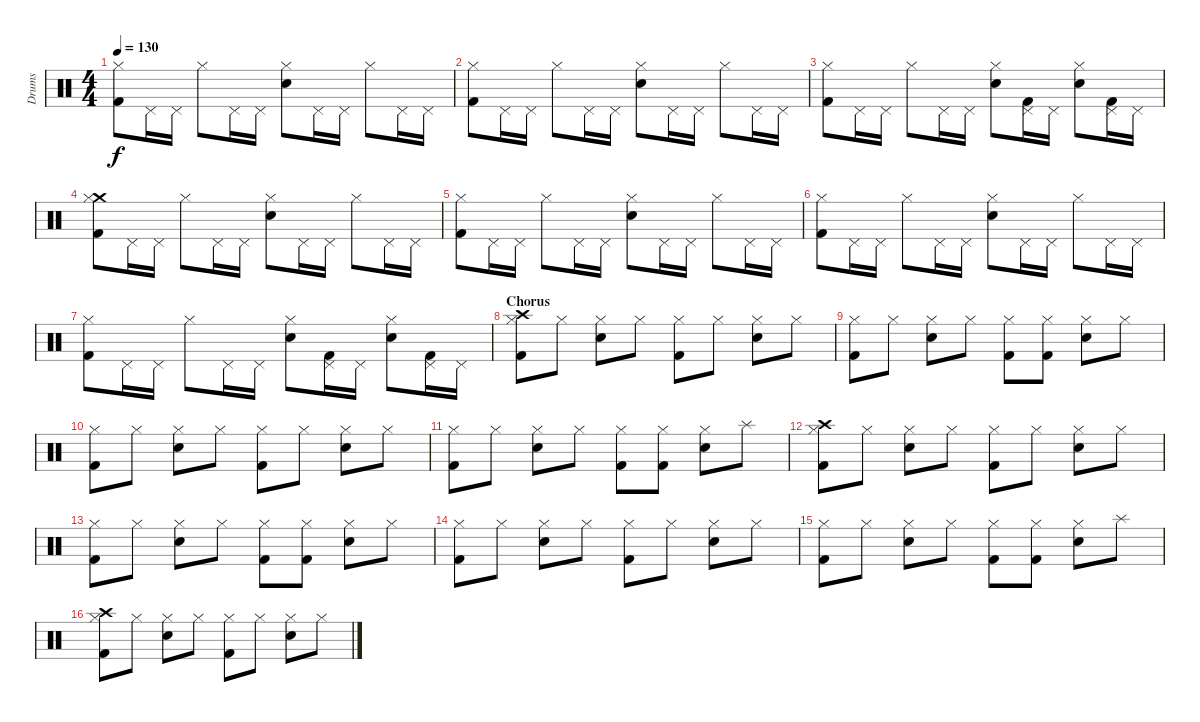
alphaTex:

\track ("Drums" "Drums") {instrument percussion}
\staff {score}
\articulation defaults
\ts (4 4)
\tempo 130
\clef neutral
\ks c
("Hi-Hat (closed)" "Kick (hit) 2").8{dy f} "Pedal Hi-Hat (hit)".16 "Pedal Hi-Hat (hit)".16 "Hi-Hat (closed)".8 "Pedal Hi-Hat (hit)".16 "Pedal Hi-Hat (hit)".16 ("Hi-Hat (closed)" "Electric Snare (hit)").8 "Pedal Hi-Hat (hit)".16 "Pedal Hi-Hat (hit)".16 "Hi-Hat (closed)".8 "Pedal Hi-Hat (hit)".16 "Pedal Hi-Hat (hit)".16 |
("Hi-Hat (closed)" "Kick (hit) 2").8 "Pedal Hi-Hat (hit)".16 "Pedal Hi-Hat (hit)".16 "Hi-Hat (closed)".8 "Pedal Hi-Hat (hit)".16 "Pedal Hi-Hat (hit)".16 ("Hi-Hat (closed)" "Electric Snare (hit)").8 "Pedal Hi-Hat (hit)".16 "Pedal Hi-Hat (hit)".16 "Hi-Hat (closed)".8 "Pedal Hi-Hat (hit)".16 "Pedal Hi-Hat (hit)".16 |
("Hi-Hat (closed)" "Kick (hit) 2").8 "Pedal Hi-Hat (hit)".16 "Pedal Hi-Hat (hit)".16 "Hi-Hat (closed)".8 "Pedal Hi-Hat (hit)".16 "Pedal Hi-Hat (hit)".16 ("Hi-Hat (closed)" "Electric Snare (hit)").8 ("Pedal Hi-Hat (hit)" "Kick (hit) 2").16 "Pedal Hi-Hat (hit)".16 ("Hi-Hat (closed)" "Electric Snare (hit)").8 ("Pedal Hi-Hat (hit)" "Kick (hit) 2").16 "Pedal Hi-Hat (hit)".16 |
("Crash medium (hit)" "Hi-Hat (closed)" "Kick (hit) 2").8 "Pedal Hi-Hat (hit)".16 "Pedal Hi-Hat (hit)".16 "Hi-Hat (closed)".8 "Pedal Hi-Hat (hit)".16 "Pedal Hi-Hat (hit)".16 ("Hi-Hat (closed)" "Electric Snare (hit)").8 "Pedal Hi-Hat (hit)".16 "Pedal Hi-Hat (hit)".16 "Hi-Hat (closed)".8 "Pedal Hi-Hat (hit)".16 "Pedal Hi-Hat (hit)".16 |
("Hi-Hat (closed)" "Kick (hit) 2").8 "Pedal Hi-Hat (hit)".16 "Pedal Hi-Hat (hit)".16 "Hi-Hat (closed)".8 "Pedal Hi-Hat (hit)".16 "Pedal Hi-Hat (hit)".16 ("Hi-Hat (closed)" "Electric Snare (hit)").8 "Pedal Hi-Hat (hit)".16 "Pedal Hi-Hat (hit)".16 "Hi-Hat (closed)".8 "Pedal Hi-Hat (hit)".16 "Pedal Hi-Hat (hit)".16 |
("Hi-Hat (closed)" "Kick (hit) 2").8 "Pedal Hi-Hat (hit)".16 "Pedal Hi-Hat (hit)".16 "Hi-Hat (closed)".8 "Pedal Hi-Hat (hit)".16 "Pedal Hi-Hat (hit)".16 ("Hi-Hat (closed)" "Electric Snare (hit)").8 "Pedal Hi-Hat (hit)".16 "Pedal Hi-Hat (hit)".16 "Hi-Hat (closed)".8 "Pedal Hi-Hat (hit)".16 "Pedal Hi-Hat (hit)".16 |
("Hi-Hat (closed)" "Kick (hit) 2").8 "Pedal Hi-Hat (hit)".16 "Pedal Hi-Hat (hit)".16 "Hi-Hat (closed)".8 "Pedal Hi-Hat (hit)".16 "Pedal Hi-Hat (hit)".16 ("Hi-Hat (closed)" "Electric Snare (hit)").8 ("Pedal Hi-Hat (hit)" "Kick (hit) 2").16 "Pedal Hi-Hat (hit)".16 ("Hi-Hat (closed)" "Electric Snare (hit)").8 ("Pedal Hi-Hat (hit)" "Kick (hit) 2").16 "Pedal Hi-Hat (hit)".16 |
\section ("" "Chorus")
("Crash high (hit)" "Hi-Hat (closed)" "Kick (hit) 2").8 "Hi-Hat (closed)".8 ("Hi-Hat (closed)" "Electric Snare (hit)").8 "Hi-Hat (closed)".8 ("Hi-Hat (closed)" "Kick (hit) 2").8 "Hi-Hat (closed)".8 ("Hi-Hat (closed)" "Electric Snare (hit)").8 "Hi-Hat (closed)".8 |
("Hi-Hat (closed)" "Kick (hit) 2").8 "Hi-Hat (closed)".8 ("Hi-Hat (closed)" "Electric Snare (hit)").8 "Hi-Hat (closed)".8 ("Hi-Hat (closed)" "Kick (hit) 2").8 ("Hi-Hat (closed)" "Kick (hit) 2").8 ("Hi-Hat (closed)" "Electric Snare (hit)").8 "Hi-Hat (closed)".8 |
("Hi-Hat (closed)" "Kick (hit) 2").8 "Hi-Hat (closed)".8 ("Hi-Hat (closed)" "Electric Snare (hit)").8 "Hi-Hat (closed)".8 ("Hi-Hat (closed)" "Kick (hit) 2").8 "Hi-Hat (closed)".8 ("Hi-Hat (closed)" "Electric Snare (hit)").8 "Hi-Hat (closed)".8 |
("Hi-Hat (closed)" "Kick (hit) 2").8 "Hi-Hat (closed)".8 ("Hi-Hat (closed)" "Electric Snare (hit)").8 "Hi-Hat (closed)".8 ("Hi-Hat (closed)" "Kick (hit) 2").8 ("Hi-Hat (closed)" "Kick (hit) 2").8 ("Hi-Hat (closed)" "Electric Snare (hit)").8 "Splash (hit)".8 |
("Crash high (hit)" "Hi-Hat (closed)" "Kick (hit) 2").8 "Hi-Hat (closed)".8 ("Hi-Hat (closed)" "Electric Snare (hit)").8 "Hi-Hat (closed)".8 ("Hi-Hat (closed)" "Kick (hit) 2").8 "Hi-Hat (closed)".8 ("Hi-Hat (closed)" "Electric Snare (hit)").8 "Hi-Hat (closed)".8 |
("Hi-Hat (closed)" "Kick (hit) 2").8 "Hi-Hat (closed)".8 ("Hi-Hat (closed)" "Electric Snare (hit)").8 "Hi-Hat (closed)".8 ("Hi-Hat (closed)" "Kick (hit) 2").8 ("Hi-Hat (closed)" "Kick (hit) 2").8 ("Hi-Hat (closed)" "Electric Snare (hit)").8 "Hi-Hat (closed)".8 |
("Hi-Hat (closed)" "Kick (hit) 2").8 "Hi-Hat (closed)".8 ("Hi-Hat (closed)" "Electric Snare (hit)").8 "Hi-Hat (closed)".8 ("Hi-Hat (closed)" "Kick (hit) 2").8 "Hi-Hat (closed)".8 ("Hi-Hat (closed)" "Electric Snare (hit)").8 "Hi-Hat (closed)".8 |
("Hi-Hat (closed)" "Kick (hit) 2").8 "Hi-Hat (closed)".8 ("Hi-Hat (closed)" "Electric Snare (hit)").8 "Hi-Hat (closed)".8 ("Hi-Hat (closed)" "Kick (hit) 2").8 ("Hi-Hat (closed)" "Kick (hit) 2").8 ("Hi-Hat (closed)" "Electric Snare (hit)").8 "Splash (hit)".8 |
("Crash high (hit)" "Hi-Hat (closed)" "Kick (hit) 2").8 "Hi-Hat (closed)".8 ("Hi-Hat (closed)" "Electric Snare (hit)").8 "Hi-Hat (closed)".8 ("Hi-Hat (closed)" "Kick (hit) 2").8 "Hi-Hat (closed)".8 ("Hi-Hat (closed)" "Electric Snare (hit)").8 "Hi-Hat (closed)".8
